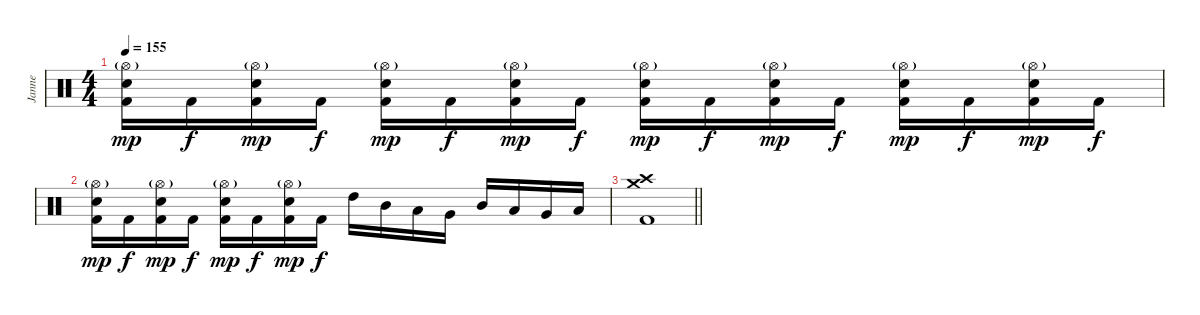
\track ("Janne" "Janne") {instrument percussion}
\staff {score}
\articulation defaults
\ts (4 4)
\tempo 155
\clef neutral
\ks c
("Kick (hit) 2" "Snare (hit) 2" "Hi-Hat (open)"{g}).16{dy mp} "Kick (hit) 2".16{dy f} ("Kick (hit) 2" "Snare (hit) 2" "Hi-Hat (open)"{g}).16{dy mp} "Kick (hit) 2".16{dy f} ("Kick (hit) 2" "Snare (hit) 2" "Hi-Hat (open)"{g}).16{dy mp} "Kick (hit) 2".16{dy f} ("Kick (hit) 2" "Snare (hit) 2" "Hi-Hat (open)"{g}).16{dy mp} "Kick (hit) 2".16{dy f} ("Kick (hit) 2" "Snare (hit) 2" "Hi-Hat (open)"{g}).16{dy mp} "Kick (hit) 2".16{dy f} ("Kick (hit) 2" "Snare (hit) 2" "Hi-Hat (open)"{g}).16{dy mp} "Kick (hit) 2".16{dy f} ("Kick (hit) 2" "Snare (hit) 2" "Hi-Hat (open)"{g}).16{dy mp} "Kick (hit) 2".16{dy f} ("Kick (hit) 2" "Snare (hit) 2" "Hi-Hat (open)"{g}).16{dy mp} "Kick (hit) 2".16{dy f} |
("Kick (hit) 2" "Snare (hit) 2" "Hi-Hat (open)"{g}).16{dy mp} "Kick (hit) 2".16{dy f} ("Kick (hit) 2" "Snare (hit) 2" "Hi-Hat (open)"{g}).16{dy mp} "Kick (hit) 2".16{dy f} ("Kick (hit) 2" "Snare (hit) 2" "Hi-Hat (open)"{g}).16{dy mp} "Kick (hit) 2".16{dy f} ("Kick (hit) 2" "Snare (hit) 2" "Hi-Hat (open)"{g}).16{dy mp} "Kick (hit) 2".16{dy f} "High Tom (hit)".16 "Mid Tom (hit)".16 "Low Tom (hit)".16 "Very Low Tom (hit)".16 "Mid Tom (hit)".16 "Low Tom (hit)".16 "Very Low Tom (hit)".16 "Low Floor Tom (hit)".16 |
\barLineRight lightlight
("Kick (hit) 2" "Crash high (hit)" "Crash medium (hit)").1
